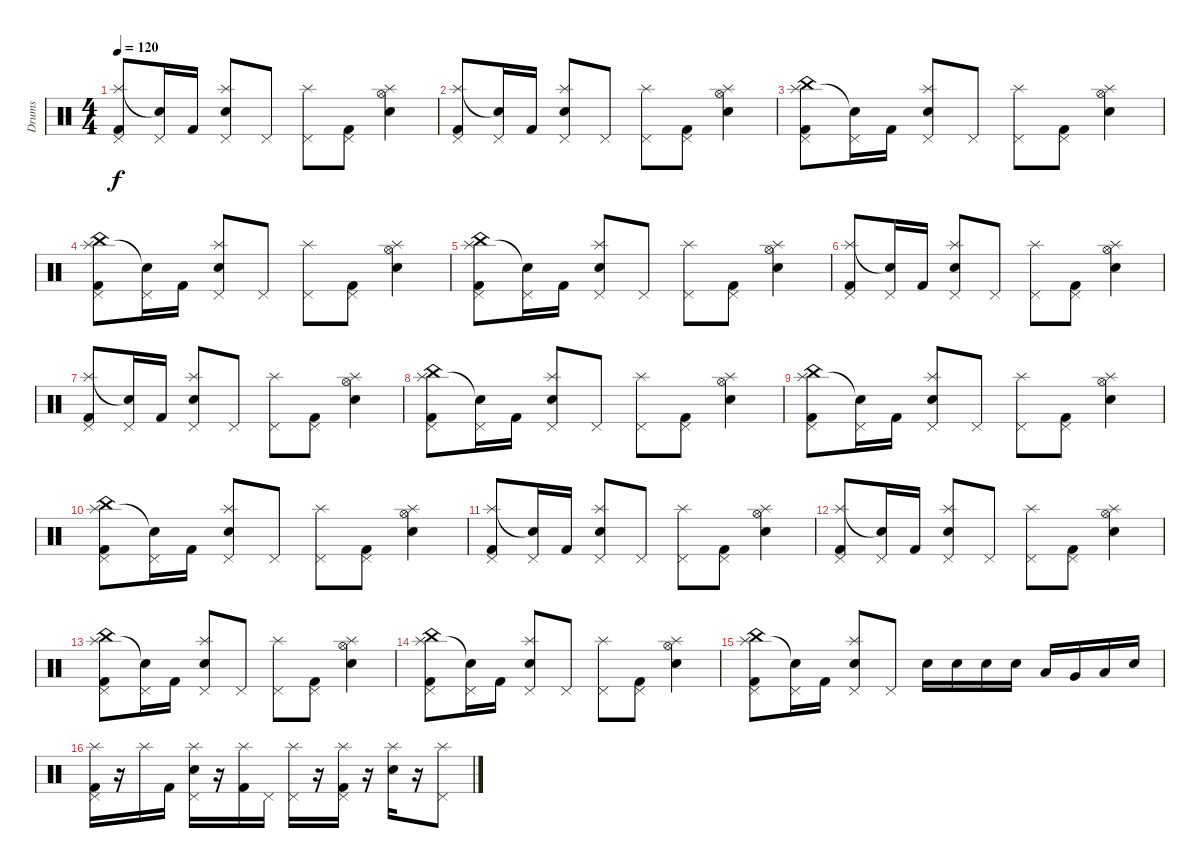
\track ("Drums" "Drums") {instrument percussion}
\staff {score}
\articulation defaults
\ts (4 4)
\tempo 120
\clef neutral
\ks c
("Pedal Hi-Hat (hit)" "Splash (hit)" "Kick (hit) 2").8{dy f} ("Pedal Hi-Hat (hit)" "Snare (hit)"{t}).16 "Kick (hit) 2".16 ("Pedal Hi-Hat (hit)" "Splash (hit)" "Electric Snare (hit)").8 "Pedal Hi-Hat (hit)".8 ("Pedal Hi-Hat (hit)" "Splash (hit)").8 ("Pedal Hi-Hat (hit)" "Kick (hit) 2").8 ("Hi-Hat (open)" "Splash (hit)" "Electric Snare (hit)").4 |
("Pedal Hi-Hat (hit)" "Splash (hit)" "Kick (hit) 2").8 ("Pedal Hi-Hat (hit)" "Snare (hit)"{t}).16 "Kick (hit) 2".16 ("Pedal Hi-Hat (hit)" "Splash (hit)" "Electric Snare (hit)").8 "Pedal Hi-Hat (hit)".8 ("Pedal Hi-Hat (hit)" "Splash (hit)").8 ("Pedal Hi-Hat (hit)" "Kick (hit) 2").8 ("Hi-Hat (open)" "Splash (hit)" "Electric Snare (hit)").4 |
("Pedal Hi-Hat (hit)" "Splash (hit)" "China (hit)" "Kick (hit) 2").8 ("Pedal Hi-Hat (hit)" "Snare (hit)"{t}).16 "Kick (hit) 2".16 ("Pedal Hi-Hat (hit)" "Splash (hit)" "Electric Snare (hit)").8 "Pedal Hi-Hat (hit)".8 ("Pedal Hi-Hat (hit)" "Splash (hit)").8 ("Pedal Hi-Hat (hit)" "Kick (hit) 2").8 ("Hi-Hat (open)" "Splash (hit)" "Electric Snare (hit)").4 |
("Pedal Hi-Hat (hit)" "Splash (hit)" "China (hit)" "Kick (hit) 2").8 ("Pedal Hi-Hat (hit)" "Snare (hit)"{t}).16 "Kick (hit) 2".16 ("Pedal Hi-Hat (hit)" "Splash (hit)" "Electric Snare (hit)").8 "Pedal Hi-Hat (hit)".8 ("Pedal Hi-Hat (hit)" "Splash (hit)").8 ("Pedal Hi-Hat (hit)" "Kick (hit) 2").8 ("Hi-Hat (open)" "Splash (hit)" "Electric Snare (hit)").4 |
("Pedal Hi-Hat (hit)" "Splash (hit)" "China (hit)" "Kick (hit) 2").8 ("Pedal Hi-Hat (hit)" "Snare (hit)"{t}).16 "Kick (hit) 2".16 ("Pedal Hi-Hat (hit)" "Splash (hit)" "Electric Snare (hit)").8 "Pedal Hi-Hat (hit)".8 ("Pedal Hi-Hat (hit)" "Splash (hit)").8 ("Pedal Hi-Hat (hit)" "Kick (hit) 2").8 ("Hi-Hat (open)" "Splash (hit)" "Electric Snare (hit)").4 |
("Pedal Hi-Hat (hit)" "Splash (hit)" "Kick (hit) 2").8 ("Pedal Hi-Hat (hit)" "Snare (hit)"{t}).16 "Kick (hit) 2".16 ("Pedal Hi-Hat (hit)" "Splash (hit)" "Electric Snare (hit)").8 "Pedal Hi-Hat (hit)".8 ("Pedal Hi-Hat (hit)" "Splash (hit)").8 ("Pedal Hi-Hat (hit)" "Kick (hit) 2").8 ("Hi-Hat (open)" "Splash (hit)" "Electric Snare (hit)").4 |
("Pedal Hi-Hat (hit)" "Splash (hit)" "Kick (hit) 2").8 ("Pedal Hi-Hat (hit)" "Snare (hit)"{t}).16 "Kick (hit) 2".16 ("Pedal Hi-Hat (hit)" "Splash (hit)" "Electric Snare (hit)").8 "Pedal Hi-Hat (hit)".8 ("Pedal Hi-Hat (hit)" "Splash (hit)").8 ("Pedal Hi-Hat (hit)" "Kick (hit) 2").8 ("Hi-Hat (open)" "Splash (hit)" "Electric Snare (hit)").4 |
("Pedal Hi-Hat (hit)" "Splash (hit)" "China (hit)" "Kick (hit) 2").8 ("Pedal Hi-Hat (hit)" "Snare (hit)"{t}).16 "Kick (hit) 2".16 ("Pedal Hi-Hat (hit)" "Splash (hit)" "Electric Snare (hit)").8 "Pedal Hi-Hat (hit)".8 ("Pedal Hi-Hat (hit)" "Splash (hit)").8 ("Pedal Hi-Hat (hit)" "Kick (hit) 2").8 ("Hi-Hat (open)" "Splash (hit)" "Electric Snare (hit)").4 |
("Pedal Hi-Hat (hit)" "Splash (hit)" "China (hit)" "Kick (hit) 2").8 ("Pedal Hi-Hat (hit)" "Snare (hit)"{t}).16 "Kick (hit) 2".16 ("Pedal Hi-Hat (hit)" "Splash (hit)" "Electric Snare (hit)").8 "Pedal Hi-Hat (hit)".8 ("Pedal Hi-Hat (hit)" "Splash (hit)").8 ("Pedal Hi-Hat (hit)" "Kick (hit) 2").8 ("Hi-Hat (open)" "Splash (hit)" "Electric Snare (hit)").4 |
("Pedal Hi-Hat (hit)" "Splash (hit)" "China (hit)" "Kick (hit) 2").8 ("Pedal Hi-Hat (hit)" "Snare (hit)"{t}).16 "Kick (hit) 2".16 ("Pedal Hi-Hat (hit)" "Splash (hit)" "Electric Snare (hit)").8 "Pedal Hi-Hat (hit)".8 ("Pedal Hi-Hat (hit)" "Splash (hit)").8 ("Pedal Hi-Hat (hit)" "Kick (hit) 2").8 ("Hi-Hat (open)" "Splash (hit)" "Electric Snare (hit)").4 |
("Pedal Hi-Hat (hit)" "Splash (hit)" "Kick (hit) 2").8 ("Pedal Hi-Hat (hit)" "Snare (hit)"{t}).16 "Kick (hit) 2".16 ("Pedal Hi-Hat (hit)" "Splash (hit)" "Electric Snare (hit)").8 "Pedal Hi-Hat (hit)".8 ("Pedal Hi-Hat (hit)" "Splash (hit)").8 ("Pedal Hi-Hat (hit)" "Kick (hit) 2").8 ("Hi-Hat (open)" "Splash (hit)" "Electric Snare (hit)").4 |
("Pedal Hi-Hat (hit)" "Splash (hit)" "Kick (hit) 2").8 ("Pedal Hi-Hat (hit)" "Snare (hit)"{t}).16 "Kick (hit) 2".16 ("Pedal Hi-Hat (hit)" "Splash (hit)" "Electric Snare (hit)").8 "Pedal Hi-Hat (hit)".8 ("Pedal Hi-Hat (hit)" "Splash (hit)").8 ("Pedal Hi-Hat (hit)" "Kick (hit) 2").8 ("Hi-Hat (open)" "Splash (hit)" "Electric Snare (hit)").4 |
("Pedal Hi-Hat (hit)" "Splash (hit)" "China (hit)" "Kick (hit) 2").8 ("Pedal Hi-Hat (hit)" "Snare (hit)"{t}).16 "Kick (hit) 2".16 ("Pedal Hi-Hat (hit)" "Splash (hit)" "Electric Snare (hit)").8 "Pedal Hi-Hat (hit)".8 ("Pedal Hi-Hat (hit)" "Splash (hit)").8 ("Pedal Hi-Hat (hit)" "Kick (hit) 2").8 ("Hi-Hat (open)" "Splash (hit)" "Electric Snare (hit)").4 |
("Pedal Hi-Hat (hit)" "Splash (hit)" "China (hit)" "Kick (hit) 2").8 ("Pedal Hi-Hat (hit)" "Snare (hit)"{t}).16 "Kick (hit) 2".16 ("Pedal Hi-Hat (hit)" "Splash (hit)" "Electric Snare (hit)").8 "Pedal Hi-Hat (hit)".8 ("Pedal Hi-Hat (hit)" "Splash (hit)").8 ("Pedal Hi-Hat (hit)" "Kick (hit) 2").8 ("Hi-Hat (open)" "Splash (hit)" "Electric Snare (hit)").4 |
("Pedal Hi-Hat (hit)" "Splash (hit)" "China (hit)" "Kick (hit) 2").8 ("Pedal Hi-Hat (hit)" "Snare (hit)"{t}).16 "Kick (hit) 2".16 ("Pedal Hi-Hat (hit)" "Splash (hit)" "Electric Snare (hit)").8 "Pedal Hi-Hat (hit)".8 "Electric Snare (hit)".16 "Electric Snare (hit)".16 "Electric Snare (hit)".16 "Electric Snare (hit)".16 "Low Tom (hit)".16 "Very Low Tom (hit)".16 "Low Floor Tom (hit)".16 "Electric Snare (hit)".16 |
("Splash (hit)" "Pedal Hi-Hat (hit)" "Kick (hit) 2").16 r.16 "Splash (hit)".16 "Kick (hit) 2".16 ("Splash (hit)" "Pedal Hi-Hat (hit)" "Electric Snare (hit)").16 r.16 ("Splash (hit)" "Kick (hit) 2").16 "Pedal Hi-Hat (hit)".16 ("Splash (hit)" "Pedal Hi-Hat (hit)").16 r.16 ("Splash (hit)" "Pedal Hi-Hat (hit)" "Kick (hit) 2").16 r.16 ("Splash (hit)" "Electric Snare (hit)").16 r.16 ("Splash (hit)" "Pedal Hi-Hat (hit)").8
